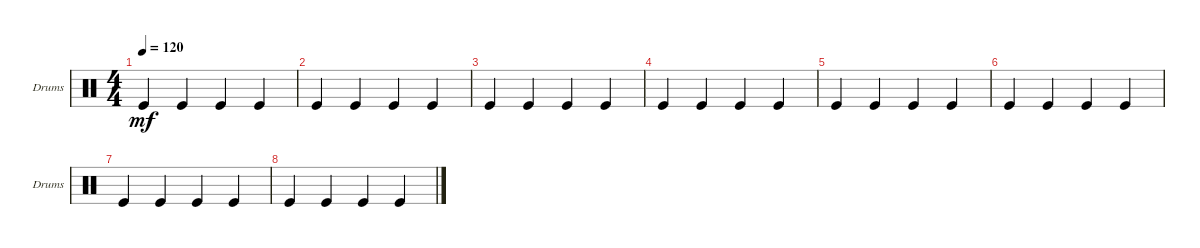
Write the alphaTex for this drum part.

\bracketExtendMode groupsimilarinstruments
\singleTrackTrackNamePolicy allsystems
\multiTrackTrackNamePolicy allsystems
\firstSystemTrackNameOrientation horizontal
\otherSystemsTrackNameOrientation horizontal
\track ("Bass Drum" "Drums") {instrument percussion}
\staff {score}
\articulation defaults
\ts (4 4)
\tempo 120
\clef neutral
\ks c "Kick (hit)".4{dy mf} "Kick (hit)".4 "Kick (hit)".4 "Kick (hit)".4
|
"Kick (hit)".4 "Kick (hit)".4 "Kick (hit)".4 "Kick (hit)".4 |
"Kick (hit)".4 "Kick (hit)".4 "Kick (hit)".4 "Kick (hit)".4 |
"Kick (hit)".4 "Kick (hit)".4 "Kick (hit)".4 "Kick (hit)".4 |
"Kick (hit)".4 "Kick (hit)".4 "Kick (hit)".4 "Kick (hit)".4 |
"Kick (hit)".4 "Kick (hit)".4 "Kick (hit)".4 "Kick (hit)".4 |
"Kick (hit)".4 "Kick (hit)".4 "Kick (hit)".4 "Kick (hit)".4 |
"Kick (hit)".4 "Kick (hit)".4 "Kick (hit)".4 "Kick (hit)".4
